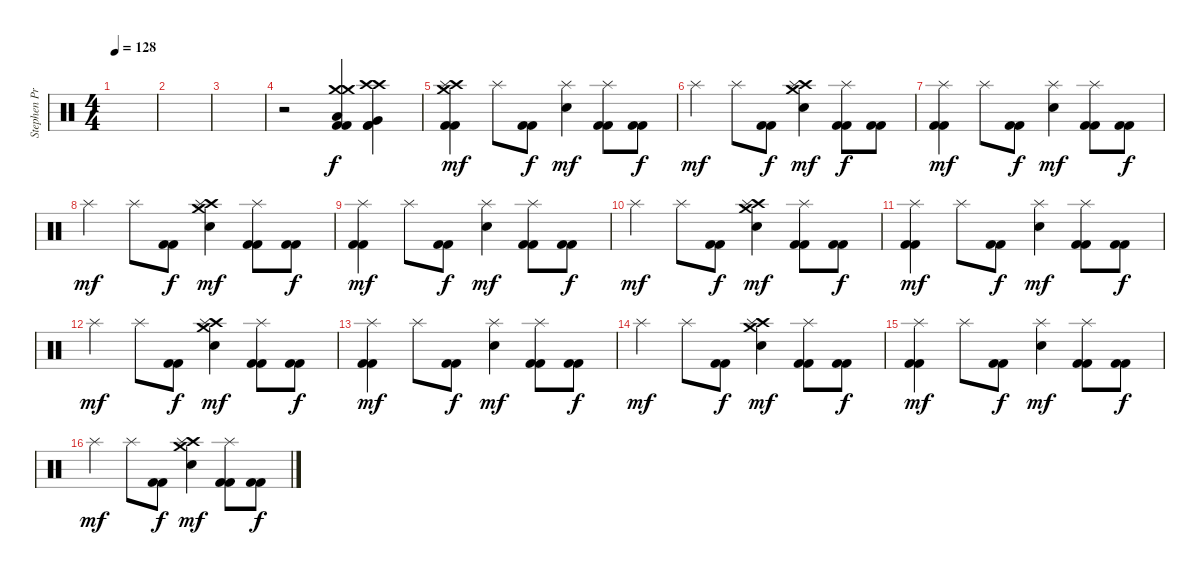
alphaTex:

\track ("Stephen Priestly  (Drums)" "Stephen Pr") {instrument percussion}
\staff {score}
\articulation defaults
\ts (4 4)
\tempo 128
\clef neutral
\ks c
|
|
|
r.2 ("Low Floor Tom (hit)" "Crash medium (hit)" "Crash medium (hit)" "Kick (hit) 2" "Kick (hit) 2").4 ("Very Low Tom (hit)" "Crash high (hit)" "Crash high (hit)" "Kick (hit) 2" "Kick (hit) 2").4 |
("Crash high (hit)" "Crash medium (hit)" "Splash (hit)" "Kick (hit) 2" "Kick (hit) 2").4{dy mf} "Splash (hit)".8 ("Kick (hit) 2" "Kick (hit) 2").8{dy f} ("Splash (hit)" "Electric Snare (hit)").4{dy mf} ("Splash (hit)" "Kick (hit) 2" "Kick (hit) 2").8 ("Kick (hit) 2" "Kick (hit) 2").8{dy f} |
"Splash (hit)".4{dy mf} "Splash (hit)".8 ("Kick (hit) 2" "Kick (hit) 2").8{dy f} ("Crash high (hit)" "Crash medium (hit)" "Splash (hit)" "Electric Snare (hit)").4{dy mf} ("Splash (hit)" "Kick (hit) 2" "Kick (hit) 2").8{dy f} ("Kick (hit) 2" "Kick (hit) 2").8 |
("Splash (hit)" "Kick (hit) 2" "Kick (hit) 2").4{dy mf} "Splash (hit)".8 ("Kick (hit) 2" "Kick (hit) 2").8{dy f} ("Splash (hit)" "Electric Snare (hit)").4{dy mf} ("Splash (hit)" "Kick (hit) 2" "Kick (hit) 2").8 ("Kick (hit) 2" "Kick (hit) 2").8{dy f} |
"Splash (hit)".4{dy mf} "Splash (hit)".8 ("Kick (hit) 2" "Kick (hit) 2").8{dy f} ("Crash high (hit)" "Crash medium (hit)" "Splash (hit)" "Electric Snare (hit)").4{dy mf} ("Splash (hit)" "Kick (hit) 2" "Kick (hit) 2").8 ("Kick (hit) 2" "Kick (hit) 2").8{dy f} |
("Splash (hit)" "Kick (hit) 2" "Kick (hit) 2").4{dy mf} "Splash (hit)".8 ("Kick (hit) 2" "Kick (hit) 2").8{dy f} ("Splash (hit)" "Electric Snare (hit)").4{dy mf} ("Splash (hit)" "Kick (hit) 2" "Kick (hit) 2").8 ("Kick (hit) 2" "Kick (hit) 2").8{dy f} |
"Splash (hit)".4{dy mf} "Splash (hit)".8 ("Kick (hit) 2" "Kick (hit) 2").8{dy f} ("Crash high (hit)" "Crash medium (hit)" "Splash (hit)" "Electric Snare (hit)").4{dy mf} ("Splash (hit)" "Kick (hit) 2" "Kick (hit) 2").8 ("Kick (hit) 2" "Kick (hit) 2").8{dy f} |
("Splash (hit)" "Kick (hit) 2" "Kick (hit) 2").4{dy mf} "Splash (hit)".8 ("Kick (hit) 2" "Kick (hit) 2").8{dy f} ("Splash (hit)" "Electric Snare (hit)").4{dy mf} ("Splash (hit)" "Kick (hit) 2" "Kick (hit) 2").8 ("Kick (hit) 2" "Kick (hit) 2").8{dy f} |
"Splash (hit)".4{dy mf} "Splash (hit)".8 ("Kick (hit) 2" "Kick (hit) 2").8{dy f} ("Crash high (hit)" "Crash medium (hit)" "Splash (hit)" "Electric Snare (hit)").4{dy mf} ("Splash (hit)" "Kick (hit) 2" "Kick (hit) 2").8 ("Kick (hit) 2" "Kick (hit) 2").8{dy f} |
("Splash (hit)" "Kick (hit) 2" "Kick (hit) 2").4{dy mf} "Splash (hit)".8 ("Kick (hit) 2" "Kick (hit) 2").8{dy f} ("Splash (hit)" "Electric Snare (hit)").4{dy mf} ("Splash (hit)" "Kick (hit) 2" "Kick (hit) 2").8 ("Kick (hit) 2" "Kick (hit) 2").8{dy f} |
"Splash (hit)".4{dy mf} "Splash (hit)".8 ("Kick (hit) 2" "Kick (hit) 2").8{dy f} ("Crash high (hit)" "Crash medium (hit)" "Splash (hit)" "Electric Snare (hit)").4{dy mf} ("Splash (hit)" "Kick (hit) 2" "Kick (hit) 2").8 ("Kick (hit) 2" "Kick (hit) 2").8{dy f} |
("Splash (hit)" "Kick (hit) 2" "Kick (hit) 2").4{dy mf} "Splash (hit)".8 ("Kick (hit) 2" "Kick (hit) 2").8{dy f} ("Splash (hit)" "Electric Snare (hit)").4{dy mf} ("Splash (hit)" "Kick (hit) 2" "Kick (hit) 2").8 ("Kick (hit) 2" "Kick (hit) 2").8{dy f} |
"Splash (hit)".4{dy mf} "Splash (hit)".8 ("Kick (hit) 2" "Kick (hit) 2").8{dy f} ("Crash high (hit)" "Crash medium (hit)" "Splash (hit)" "Electric Snare (hit)").4{dy mf} ("Splash (hit)" "Kick (hit) 2" "Kick (hit) 2").8 ("Kick (hit) 2" "Kick (hit) 2").8{dy f}
